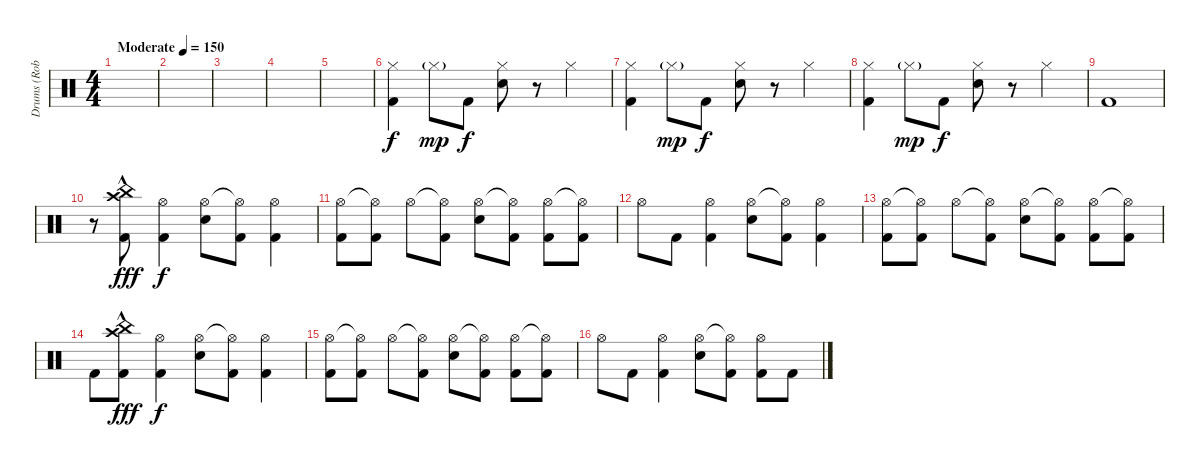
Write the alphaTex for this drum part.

\track ("Drums (Rob)" "Drums (Rob") {instrument percussion}
\staff {score}
\articulation defaults
\ts (4 4)
\tempo (150 "Moderate")
\clef neutral
\ks c
|
|
|
|
|
("Hi-Hat (closed)" "Kick (hit) 2").4 "Hi-Hat (closed)"{g}.8{dy mp} "Kick (hit) 2".8{dy f} ("Hi-Hat (closed)" "Electric Snare (hit)").8 r.8 "Hi-Hat (closed)".4 |
("Hi-Hat (closed)" "Kick (hit) 2").4 "Hi-Hat (closed)"{g}.8{dy mp} "Kick (hit) 2".8{dy f} ("Hi-Hat (closed)" "Electric Snare (hit)").8 r.8 "Hi-Hat (closed)".4 |
("Hi-Hat (closed)" "Kick (hit) 2").4 "Hi-Hat (closed)"{g}.8{dy mp} "Kick (hit) 2".8{dy f} ("Hi-Hat (closed)" "Electric Snare (hit)").8 r.8 "Hi-Hat (closed)".4 |
"Kick (hit) 2".1 |
r.8 ("Crash high (hit)"{hac} "China (hit)"{hac} "Kick (hit) 2").8{dy fff} ("Hi-Hat (open)" "Kick (hit) 2").4{dy f} ("Hi-Hat (open)" "Snare (hit) 2").8 ("Hi-Hat (open)"{t} "Kick (hit) 2").8 ("Hi-Hat (open)" "Kick (hit) 2").4 |
("Hi-Hat (open)" "Kick (hit) 2").8 ("Hi-Hat (open)"{t} "Kick (hit) 2").8 "Hi-Hat (open)".8 ("Hi-Hat (open)"{t} "Kick (hit) 2").8 ("Hi-Hat (open)" "Snare (hit) 2").8 ("Hi-Hat (open)"{t} "Kick (hit) 2").8 ("Hi-Hat (open)" "Kick (hit) 2").8 ("Hi-Hat (open)"{t} "Kick (hit) 2").8 |
"Hi-Hat (open)".8 "Kick (hit) 2".8 ("Hi-Hat (open)" "Kick (hit) 2").4 ("Hi-Hat (open)" "Snare (hit) 2").8 ("Hi-Hat (open)"{t} "Kick (hit) 2").8 ("Hi-Hat (open)" "Kick (hit) 2").4 |
("Hi-Hat (open)" "Kick (hit) 2").8 ("Hi-Hat (open)"{t} "Kick (hit) 2").8 "Hi-Hat (open)".8 ("Hi-Hat (open)"{t} "Kick (hit) 2").8 ("Hi-Hat (open)" "Snare (hit) 2").8 ("Hi-Hat (open)"{t} "Kick (hit) 2").8 ("Hi-Hat (open)" "Kick (hit) 2").8 ("Hi-Hat (open)"{t} "Kick (hit) 2").8 |
"Kick (hit) 2".8 ("Crash high (hit)"{hac} "China (hit)"{hac} "Kick (hit) 2").8{dy fff} ("Hi-Hat (open)" "Kick (hit) 2").4{dy f} ("Hi-Hat (open)" "Snare (hit) 2").8 ("Hi-Hat (open)"{t} "Kick (hit) 2").8 ("Hi-Hat (open)" "Kick (hit) 2").4 |
("Hi-Hat (open)" "Kick (hit) 2").8 ("Hi-Hat (open)"{t} "Kick (hit) 2").8 "Hi-Hat (open)".8 ("Hi-Hat (open)"{t} "Kick (hit) 2").8 ("Hi-Hat (open)" "Snare (hit) 2").8 ("Hi-Hat (open)"{t} "Kick (hit) 2").8 ("Hi-Hat (open)" "Kick (hit) 2").8 ("Hi-Hat (open)"{t} "Kick (hit) 2").8 |
"Hi-Hat (open)".8 "Kick (hit) 2".8 ("Hi-Hat (open)" "Kick (hit) 2").4 ("Hi-Hat (open)" "Snare (hit) 2").8 ("Hi-Hat (open)"{t} "Kick (hit) 2").8 ("Hi-Hat (open)" "Kick (hit) 2").8 "Kick (hit) 2".8
